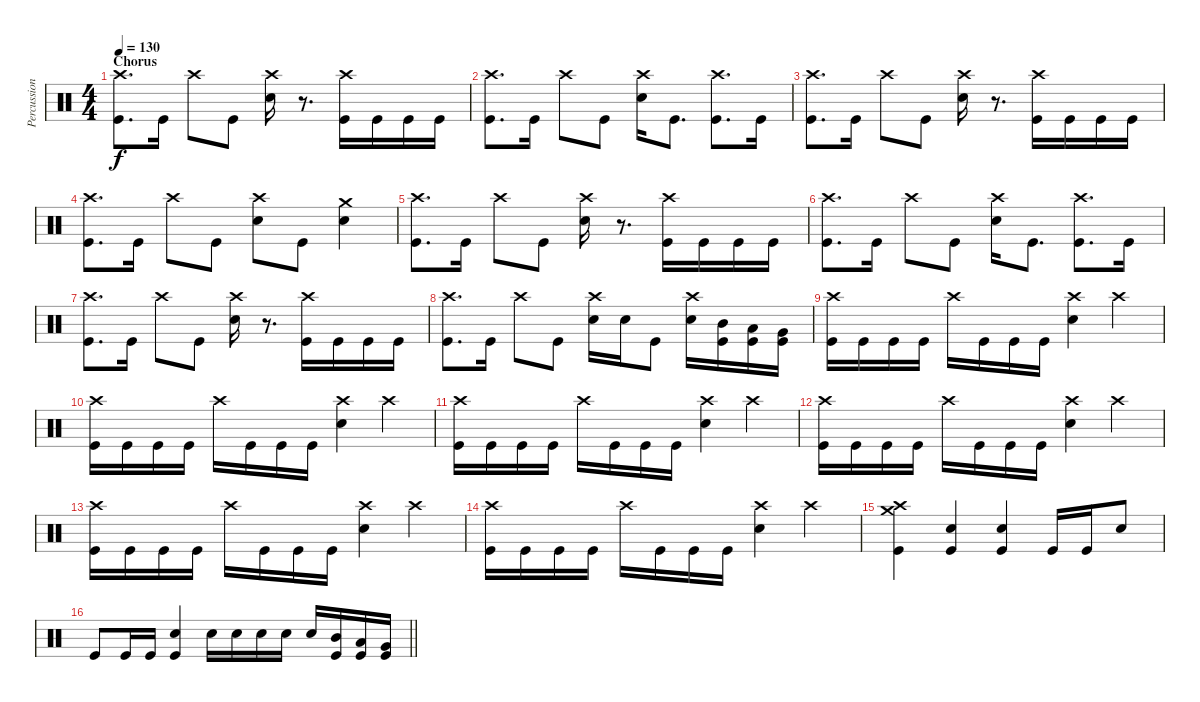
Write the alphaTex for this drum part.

\track ("Percussion" "Percussion") {instrument percussion}
\staff {score}
\articulation defaults
\ts (4 4)
\section ("" "Chorus")
\tempo 130
\clef neutral
\ks c
("Crash high (hit)" "Kick (hit)").8{d dy f} "Kick (hit)".16 "Crash high (hit)".8 "Kick (hit)".8 ("Crash high (hit)" "Snare (hit) 2").16 r.8{d} ("Crash high (hit)" "Kick (hit)").16 "Kick (hit)".16 "Kick (hit)".16 "Kick (hit)".16 |
("Crash high (hit)" "Kick (hit)").8{d} "Kick (hit)".16 "Crash high (hit)".8 "Kick (hit)".8 ("Crash high (hit)" "Snare (hit) 2").16 "Kick (hit)".8{d} ("Crash high (hit)" "Kick (hit)").8{d} "Kick (hit)".16 |
("Crash high (hit)" "Kick (hit)").8{d} "Kick (hit)".16 "Crash high (hit)".8 "Kick (hit)".8 ("Crash high (hit)" "Snare (hit) 2").16 r.8{d} ("Crash high (hit)" "Kick (hit)").16 "Kick (hit)".16 "Kick (hit)".16 "Kick (hit)".16 |
("Crash high (hit)" "Kick (hit)").8{d} "Kick (hit)".16 "Crash high (hit)".8 "Kick (hit)".8 ("Crash high (hit)" "Snare (hit) 2").8 "Kick (hit)".8 ("Crash medium (hit)" "Snare (hit) 2").4 |
("Crash high (hit)" "Kick (hit)").8{d} "Kick (hit)".16 "Crash high (hit)".8 "Kick (hit)".8 ("Crash high (hit)" "Snare (hit) 2").16 r.8{d} ("Crash high (hit)" "Kick (hit)").16 "Kick (hit)".16 "Kick (hit)".16 "Kick (hit)".16 |
("Crash high (hit)" "Kick (hit)").8{d} "Kick (hit)".16 "Crash high (hit)".8 "Kick (hit)".8 ("Crash high (hit)" "Snare (hit) 2").16 "Kick (hit)".8{d} ("Crash high (hit)" "Kick (hit)").8{d} "Kick (hit)".16 |
("Crash high (hit)" "Kick (hit)").8{d} "Kick (hit)".16 "Crash high (hit)".8 "Kick (hit)".8 ("Crash high (hit)" "Snare (hit) 2").16 r.8{d} ("Crash high (hit)" "Kick (hit)").16 "Kick (hit)".16 "Kick (hit)".16 "Kick (hit)".16 |
("Crash high (hit)" "Kick (hit)").8{d} "Kick (hit)".16 "Crash high (hit)".8 "Kick (hit)".8 ("Crash high (hit)" "Snare (hit) 2").16 "Snare (hit) 2".16 "Kick (hit)".8 ("Crash high (hit)" "Snare (hit) 2").16 ("Mid Tom (hit)" "Kick (hit)").16 ("Low Tom (hit)" "Kick (hit)").16 ("Very Low Tom (hit)" "Kick (hit)").16 |
("Crash high (hit)" "Kick (hit)").16 "Kick (hit)".16 "Kick (hit)".16 "Kick (hit)".16 "Crash high (hit)".16 "Kick (hit)".16 "Kick (hit)".16 "Kick (hit)".16 ("Crash high (hit)" "Snare (hit) 2").4 "Crash high (hit)".4 |
("Crash high (hit)" "Kick (hit)").16 "Kick (hit)".16 "Kick (hit)".16 "Kick (hit)".16 "Crash high (hit)".16 "Kick (hit)".16 "Kick (hit)".16 "Kick (hit)".16 ("Crash high (hit)" "Snare (hit) 2").4 "Crash high (hit)".4 |
("Crash high (hit)" "Kick (hit)").16 "Kick (hit)".16 "Kick (hit)".16 "Kick (hit)".16 "Crash high (hit)".16 "Kick (hit)".16 "Kick (hit)".16 "Kick (hit)".16 ("Crash high (hit)" "Snare (hit) 2").4 "Crash high (hit)".4 |
("Crash high (hit)" "Kick (hit)").16 "Kick (hit)".16 "Kick (hit)".16 "Kick (hit)".16 "Crash high (hit)".16 "Kick (hit)".16 "Kick (hit)".16 "Kick (hit)".16 ("Crash high (hit)" "Snare (hit) 2").4 "Crash high (hit)".4 |
("Crash high (hit)" "Kick (hit)").16 "Kick (hit)".16 "Kick (hit)".16 "Kick (hit)".16 "Crash high (hit)".16 "Kick (hit)".16 "Kick (hit)".16 "Kick (hit)".16 ("Crash high (hit)" "Snare (hit) 2").4 "Crash high (hit)".4 |
("Crash high (hit)" "Kick (hit)").16 "Kick (hit)".16 "Kick (hit)".16 "Kick (hit)".16 "Crash high (hit)".16 "Kick (hit)".16 "Kick (hit)".16 "Kick (hit)".16 ("Crash high (hit)" "Snare (hit) 2").4 "Crash high (hit)".4 |
("Crash medium (hit)" "Crash high (hit)" "Kick (hit)").4 ("Snare (hit) 2" "Kick (hit)").4 ("Snare (hit) 2" "Kick (hit)").4 "Kick (hit)".16 "Kick (hit)".16 "Snare (hit) 2".8 |
\barLineRight lightlight "Kick (hit)".8 "Kick (hit)".16 "Kick (hit)".16
("Snare (hit) 2" "Kick (hit)").4 "Snare (hit) 2".16 "Snare (hit) 2".16 "Snare (hit) 2".16 "Snare (hit) 2".16 "Snare (hit) 2".16 ("Mid Tom (hit)" "Kick (hit)").16 ("Low Tom (hit)" "Kick (hit)").16 ("Very Low Tom (hit)" "Kick (hit)").16
